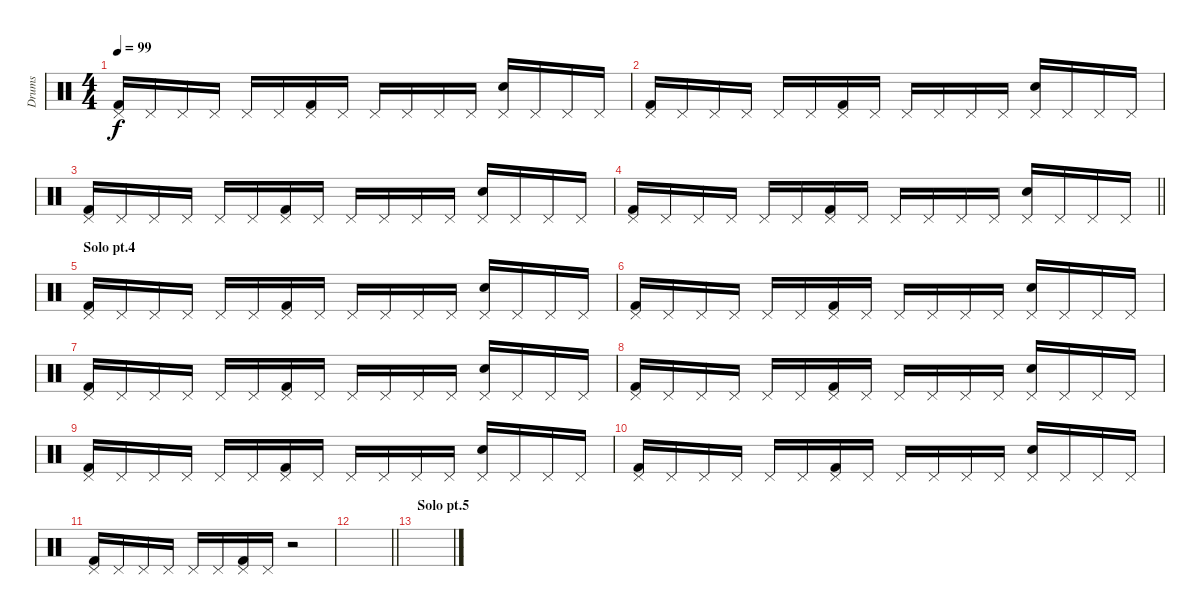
\track ("Drums" "Drums") {instrument percussion}
\staff {score}
\articulation defaults
\ts (4 4)
\tempo 99
\clef neutral
\ks c
("Pedal Hi-Hat (hit)" "Kick (hit) 2").16{dy f} "Pedal Hi-Hat (hit)".16 "Pedal Hi-Hat (hit)".16 "Pedal Hi-Hat (hit)".16 "Pedal Hi-Hat (hit)".16 "Pedal Hi-Hat (hit)".16 ("Pedal Hi-Hat (hit)" "Kick (hit) 2").16 "Pedal Hi-Hat (hit)".16 "Pedal Hi-Hat (hit)".16 "Pedal Hi-Hat (hit)".16 "Pedal Hi-Hat (hit)".16 "Pedal Hi-Hat (hit)".16 ("Pedal Hi-Hat (hit)" "Snare (hit) 2").16 "Pedal Hi-Hat (hit)".16 "Pedal Hi-Hat (hit)".16 "Pedal Hi-Hat (hit)".16 |
("Pedal Hi-Hat (hit)" "Kick (hit) 2").16 "Pedal Hi-Hat (hit)".16 "Pedal Hi-Hat (hit)".16 "Pedal Hi-Hat (hit)".16 "Pedal Hi-Hat (hit)".16 "Pedal Hi-Hat (hit)".16 ("Pedal Hi-Hat (hit)" "Kick (hit) 2").16 "Pedal Hi-Hat (hit)".16 "Pedal Hi-Hat (hit)".16 "Pedal Hi-Hat (hit)".16 "Pedal Hi-Hat (hit)".16 "Pedal Hi-Hat (hit)".16 ("Pedal Hi-Hat (hit)" "Snare (hit) 2").16 "Pedal Hi-Hat (hit)".16 "Pedal Hi-Hat (hit)".16 "Pedal Hi-Hat (hit)".16 |
("Pedal Hi-Hat (hit)" "Kick (hit) 2").16 "Pedal Hi-Hat (hit)".16 "Pedal Hi-Hat (hit)".16 "Pedal Hi-Hat (hit)".16 "Pedal Hi-Hat (hit)".16 "Pedal Hi-Hat (hit)".16 ("Pedal Hi-Hat (hit)" "Kick (hit) 2").16 "Pedal Hi-Hat (hit)".16 "Pedal Hi-Hat (hit)".16 "Pedal Hi-Hat (hit)".16 "Pedal Hi-Hat (hit)".16 "Pedal Hi-Hat (hit)".16 ("Pedal Hi-Hat (hit)" "Snare (hit) 2").16 "Pedal Hi-Hat (hit)".16 "Pedal Hi-Hat (hit)".16 "Pedal Hi-Hat (hit)".16 |
\barLineRight lightlight
("Pedal Hi-Hat (hit)" "Kick (hit) 2").16 "Pedal Hi-Hat (hit)".16 "Pedal Hi-Hat (hit)".16 "Pedal Hi-Hat (hit)".16 "Pedal Hi-Hat (hit)".16 "Pedal Hi-Hat (hit)".16 ("Pedal Hi-Hat (hit)" "Kick (hit) 2").16 "Pedal Hi-Hat (hit)".16 "Pedal Hi-Hat (hit)".16 "Pedal Hi-Hat (hit)".16 "Pedal Hi-Hat (hit)".16 "Pedal Hi-Hat (hit)".16 ("Pedal Hi-Hat (hit)" "Snare (hit) 2").16 "Pedal Hi-Hat (hit)".16 "Pedal Hi-Hat (hit)".16 "Pedal Hi-Hat (hit)".16 |
\section ("" "Solo pt.4")
("Pedal Hi-Hat (hit)" "Kick (hit) 2").16 "Pedal Hi-Hat (hit)".16 "Pedal Hi-Hat (hit)".16 "Pedal Hi-Hat (hit)".16 "Pedal Hi-Hat (hit)".16 "Pedal Hi-Hat (hit)".16 ("Pedal Hi-Hat (hit)" "Kick (hit) 2").16 "Pedal Hi-Hat (hit)".16 "Pedal Hi-Hat (hit)".16 "Pedal Hi-Hat (hit)".16 "Pedal Hi-Hat (hit)".16 "Pedal Hi-Hat (hit)".16 ("Pedal Hi-Hat (hit)" "Snare (hit) 2").16 "Pedal Hi-Hat (hit)".16 "Pedal Hi-Hat (hit)".16 "Pedal Hi-Hat (hit)".16 |
("Pedal Hi-Hat (hit)" "Kick (hit) 2").16 "Pedal Hi-Hat (hit)".16 "Pedal Hi-Hat (hit)".16 "Pedal Hi-Hat (hit)".16 "Pedal Hi-Hat (hit)".16 "Pedal Hi-Hat (hit)".16 ("Pedal Hi-Hat (hit)" "Kick (hit) 2").16 "Pedal Hi-Hat (hit)".16 "Pedal Hi-Hat (hit)".16 "Pedal Hi-Hat (hit)".16 "Pedal Hi-Hat (hit)".16 "Pedal Hi-Hat (hit)".16 ("Pedal Hi-Hat (hit)" "Snare (hit) 2").16 "Pedal Hi-Hat (hit)".16 "Pedal Hi-Hat (hit)".16 "Pedal Hi-Hat (hit)".16 |
("Pedal Hi-Hat (hit)" "Kick (hit) 2").16 "Pedal Hi-Hat (hit)".16 "Pedal Hi-Hat (hit)".16 "Pedal Hi-Hat (hit)".16 "Pedal Hi-Hat (hit)".16 "Pedal Hi-Hat (hit)".16 ("Pedal Hi-Hat (hit)" "Kick (hit) 2").16 "Pedal Hi-Hat (hit)".16 "Pedal Hi-Hat (hit)".16 "Pedal Hi-Hat (hit)".16 "Pedal Hi-Hat (hit)".16 "Pedal Hi-Hat (hit)".16 ("Pedal Hi-Hat (hit)" "Snare (hit) 2").16 "Pedal Hi-Hat (hit)".16 "Pedal Hi-Hat (hit)".16 "Pedal Hi-Hat (hit)".16 |
("Pedal Hi-Hat (hit)" "Kick (hit) 2").16 "Pedal Hi-Hat (hit)".16 "Pedal Hi-Hat (hit)".16 "Pedal Hi-Hat (hit)".16 "Pedal Hi-Hat (hit)".16 "Pedal Hi-Hat (hit)".16 ("Pedal Hi-Hat (hit)" "Kick (hit) 2").16 "Pedal Hi-Hat (hit)".16 "Pedal Hi-Hat (hit)".16 "Pedal Hi-Hat (hit)".16 "Pedal Hi-Hat (hit)".16 "Pedal Hi-Hat (hit)".16 ("Pedal Hi-Hat (hit)" "Snare (hit) 2").16 "Pedal Hi-Hat (hit)".16 "Pedal Hi-Hat (hit)".16 "Pedal Hi-Hat (hit)".16 |
("Pedal Hi-Hat (hit)" "Kick (hit) 2").16 "Pedal Hi-Hat (hit)".16 "Pedal Hi-Hat (hit)".16 "Pedal Hi-Hat (hit)".16 "Pedal Hi-Hat (hit)".16 "Pedal Hi-Hat (hit)".16 ("Pedal Hi-Hat (hit)" "Kick (hit) 2").16 "Pedal Hi-Hat (hit)".16 "Pedal Hi-Hat (hit)".16 "Pedal Hi-Hat (hit)".16 "Pedal Hi-Hat (hit)".16 "Pedal Hi-Hat (hit)".16 ("Pedal Hi-Hat (hit)" "Snare (hit) 2").16 "Pedal Hi-Hat (hit)".16 "Pedal Hi-Hat (hit)".16 "Pedal Hi-Hat (hit)".16 |
("Pedal Hi-Hat (hit)" "Kick (hit) 2").16 "Pedal Hi-Hat (hit)".16 "Pedal Hi-Hat (hit)".16 "Pedal Hi-Hat (hit)".16 "Pedal Hi-Hat (hit)".16 "Pedal Hi-Hat (hit)".16 ("Pedal Hi-Hat (hit)" "Kick (hit) 2").16 "Pedal Hi-Hat (hit)".16 "Pedal Hi-Hat (hit)".16 "Pedal Hi-Hat (hit)".16 "Pedal Hi-Hat (hit)".16 "Pedal Hi-Hat (hit)".16 ("Pedal Hi-Hat (hit)" "Snare (hit) 2").16 "Pedal Hi-Hat (hit)".16 "Pedal Hi-Hat (hit)".16 "Pedal Hi-Hat (hit)".16 |
("Pedal Hi-Hat (hit)" "Kick (hit) 2").16 "Pedal Hi-Hat (hit)".16 "Pedal Hi-Hat (hit)".16 "Pedal Hi-Hat (hit)".16 "Pedal Hi-Hat (hit)".16 "Pedal Hi-Hat (hit)".16 ("Pedal Hi-Hat (hit)" "Kick (hit) 2").16 "Pedal Hi-Hat (hit)".16 r.2 |
\barLineRight lightlight
|
\section ("" "Solo pt.5")
